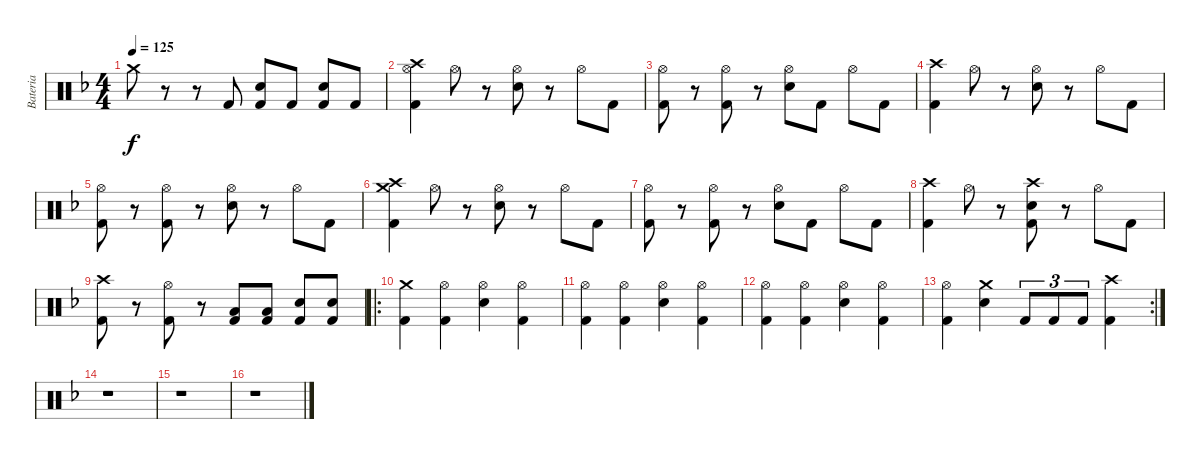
\track ("Bateria" "Bateria") {instrument percussion}
\staff {score}
\articulation defaults
\ts (4 4)
\tempo 125
\clef neutral
\ks f "Crash medium (hit)".8{dy f}
r.8 r.8 "Kick (hit) 2".8 ("Electric Snare (hit)" "Kick (hit) 2").8 "Kick (hit) 2".8 ("Electric Snare (hit)" "Kick (hit) 2").8 "Kick (hit) 2".8 |
("Hi-Hat (open)" "Crash high (hit)" "Kick (hit) 2").4 "Hi-Hat (open)".8 r.8 ("Hi-Hat (open)" "Electric Snare (hit)").8 r.8 "Hi-Hat (open)".8 "Kick (hit) 2".8 |
("Hi-Hat (open)" "Kick (hit) 2").8 r.8 ("Hi-Hat (open)" "Kick (hit) 2").8 r.8 ("Hi-Hat (open)" "Electric Snare (hit)").8 "Kick (hit) 2".8 "Hi-Hat (open)".8 "Kick (hit) 2".8 |
("Crash high (hit)" "Kick (hit) 2").4 "Hi-Hat (open)".8 r.8 ("Hi-Hat (open)" "Electric Snare (hit)").8 r.8 "Hi-Hat (open)".8 "Kick (hit) 2".8 |
("Hi-Hat (open)" "Kick (hit) 2").8 r.8 ("Hi-Hat (open)" "Kick (hit) 2").8 r.8 ("Hi-Hat (open)" "Electric Snare (hit)").8 r.8 "Hi-Hat (open)".8 "Kick (hit) 2".8 |
("Crash medium (hit)" "Crash high (hit)" "Kick (hit) 2").4 "Hi-Hat (open)".8 r.8 ("Hi-Hat (open)" "Electric Snare (hit)").8 r.8 "Hi-Hat (open)".8 "Kick (hit) 2".8 |
("Hi-Hat (open)" "Kick (hit) 2").8 r.8 ("Hi-Hat (open)" "Kick (hit) 2").8 r.8 ("Hi-Hat (open)" "Electric Snare (hit)").8 "Kick (hit) 2".8 "Hi-Hat (open)".8 "Kick (hit) 2".8 |
("Crash high (hit)" "Kick (hit) 2").4 "Hi-Hat (open)".8 r.8 ("Crash high (hit)" "Electric Snare (hit)" "Kick (hit) 2").8 r.8 "Hi-Hat (open)".8 "Kick (hit) 2".8 |
("Crash high (hit)" "Kick (hit) 2").8 r.8 ("Hi-Hat (open)" "Kick (hit) 2").8 r.8 ("Low Tom (hit)" "Kick (hit) 2").8 ("Low Tom (hit)" "Kick (hit) 2").8 ("Snare (hit) 2" "Kick (hit) 2").8 ("Snare (hit) 2" "Kick (hit) 2").8 |
\ro
("Crash medium (hit)" "Kick (hit) 2").4 ("Hi-Hat (open)" "Kick (hit) 2").4 ("Hi-Hat (open)" "Electric Snare (hit)").4 ("Hi-Hat (open)" "Kick (hit) 2").4 |
("Hi-Hat (open)" "Kick (hit) 2").4 ("Hi-Hat (open)" "Kick (hit) 2").4 ("Hi-Hat (open)" "Electric Snare (hit)").4 ("Hi-Hat (open)" "Kick (hit) 2").4 |
("Hi-Hat (open)" "Kick (hit) 2").4 ("Hi-Hat (open)" "Kick (hit) 2").4 ("Hi-Hat (open)" "Electric Snare (hit)").4 ("Hi-Hat (open)" "Kick (hit) 2").4 |
\rc 2
("Hi-Hat (open)" "Kick (hit) 2").4 ("Crash medium (hit)" "Electric Snare (hit)").4 "Kick (hit) 2".8{tu (3 2)} "Kick (hit) 2".8{tu (3 2)} "Kick (hit) 2".8{tu (3 2)} ("Crash high (hit)" "Kick (hit) 2").4 |
r.1 |
r.1 |
r.1
